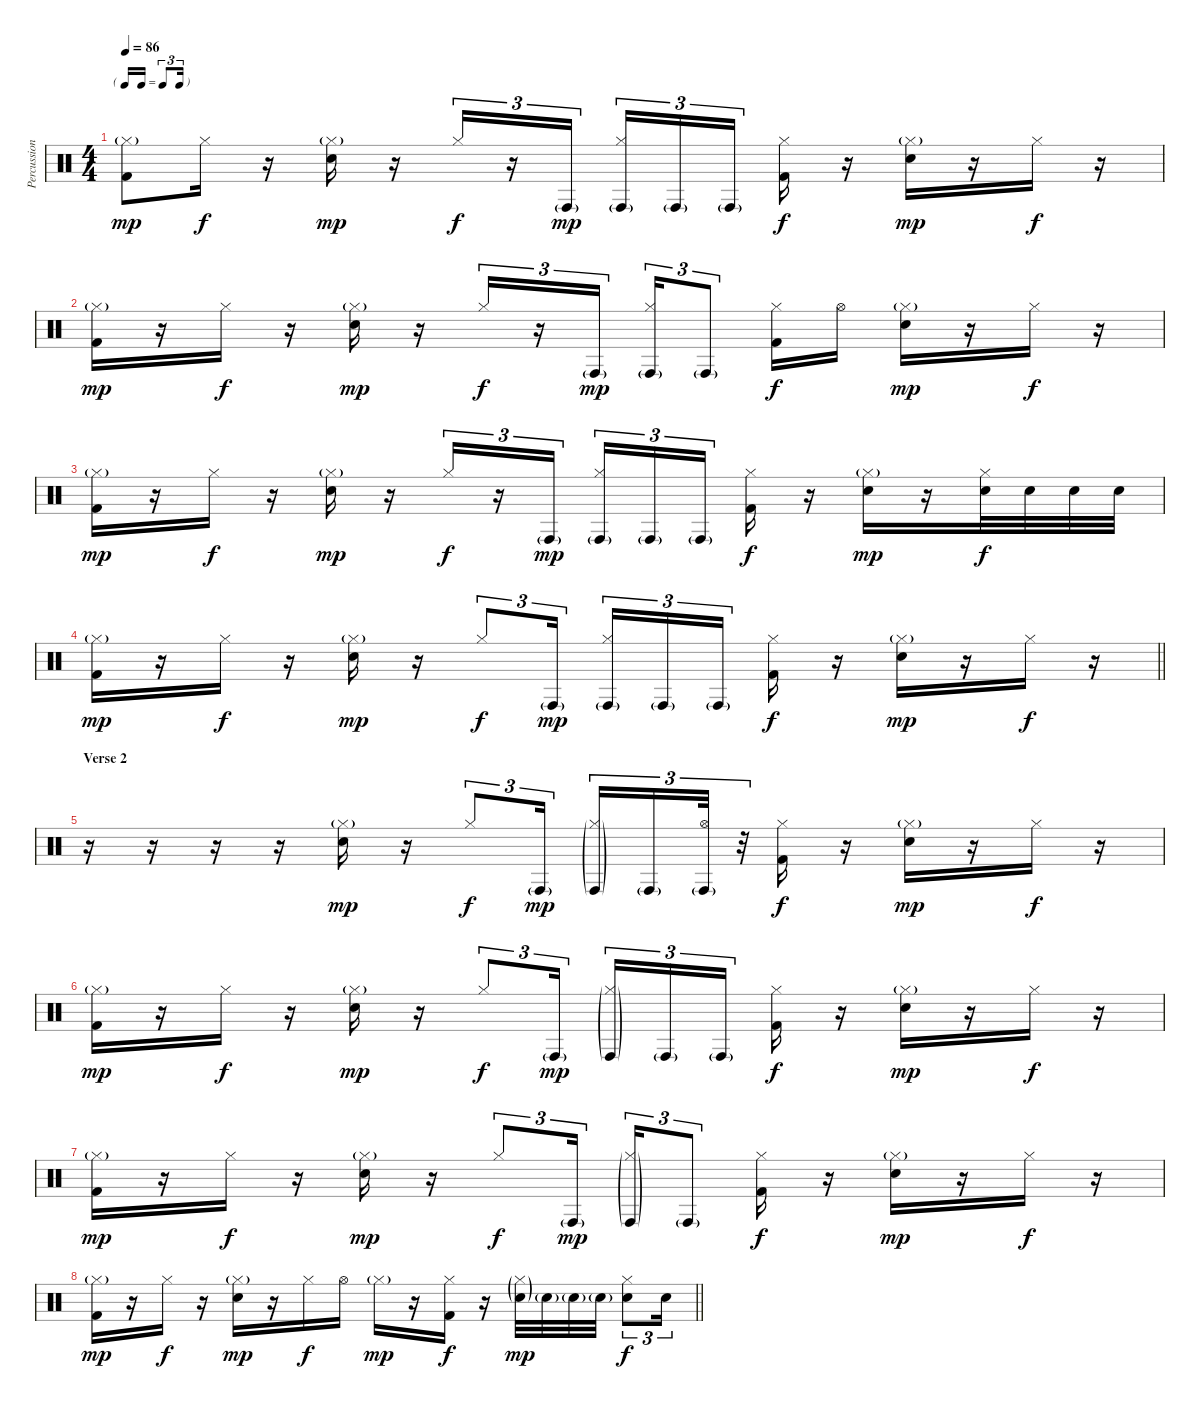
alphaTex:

\track ("Percussion" "Percussion") {instrument percussion}
\staff {score}
\articulation defaults
\ts (4 4)
\tf triplet16th
\tempo 86
\clef neutral
\ks c
("Hi-Hat (closed)"{g} "Kick (hit) 2").8{dy mp} "Hi-Hat (closed)".16{dy f} r.16 ("Hi-Hat (closed)"{g} "Electric Snare (hit)").16{dy mp} r.16 "Hi-Hat (closed)".16{tu (3 2) dy f} r.16{tu (3 2)} "Conga high (hit)"{g}.16{tu (3 2) dy mp} ("Conga high (hit)"{g} "Hi-Hat (closed)").16{tu (3 2)} "Conga high (hit)"{g}.16{tu (3 2)} "Conga high (hit)"{g}.16{tu (3 2) beam splitsecondary} ("Hi-Hat (closed)" "Kick (hit) 2").16{dy f} r.16 ("Hi-Hat (closed)"{g} "Electric Snare (hit)").16{dy mp} r.16 "Hi-Hat (closed)".16{dy f} r.16 |
("Hi-Hat (closed)"{g} "Kick (hit) 2").16{dy mp} r.16 "Hi-Hat (closed)".16{dy f} r.16 ("Hi-Hat (closed)"{g} "Electric Snare (hit)").16{dy mp} r.16 "Hi-Hat (closed)".16{tu (3 2) dy f} r.16{tu (3 2)} "Conga high (hit)"{g}.16{tu (3 2) dy mp} ("Conga high (hit)"{g} "Hi-Hat (closed)").16{tu (3 2)} "Conga high (hit)"{g}.8{tu (3 2)} ("Hi-Hat (closed)" "Kick (hit) 2").16{dy f} "Hi-Hat (open)".16 ("Hi-Hat (closed)"{g} "Electric Snare (hit)").16{dy mp} r.16 "Hi-Hat (closed)".16{dy f} r.16 |
("Hi-Hat (closed)"{g} "Kick (hit) 2").16{dy mp} r.16 "Hi-Hat (closed)".16{dy f} r.16 ("Hi-Hat (closed)"{g} "Electric Snare (hit)").16{dy mp} r.16 "Hi-Hat (closed)".16{tu (3 2) dy f} r.16{tu (3 2)} "Conga high (hit)"{g}.16{tu (3 2) dy mp} ("Conga high (hit)"{g} "Hi-Hat (closed)").16{tu (3 2)} "Conga high (hit)"{g}.16{tu (3 2)} "Conga high (hit)"{g}.16{tu (3 2) beam splitsecondary} ("Hi-Hat (closed)" "Kick (hit) 2").16{dy f} r.16 ("Hi-Hat (closed)"{g} "Electric Snare (hit)").16{dy mp} r.16 ("Hi-Hat (closed)" "Electric Snare (hit)").32{dy f} "Electric Snare (hit)".32 "Electric Snare (hit)".32 "Electric Snare (hit)".32 |
\barLineRight lightlight
("Hi-Hat (closed)"{g} "Kick (hit) 2").16{dy mp} r.16 "Hi-Hat (closed)".16{dy f} r.16 ("Hi-Hat (closed)"{g} "Electric Snare (hit)").16{dy mp} r.16 "Hi-Hat (closed)".8{tu (3 2) dy f} "Conga high (hit)"{g}.16{tu (3 2) dy mp} ("Conga high (hit)"{g} "Hi-Hat (closed)").16{tu (3 2)} "Conga high (hit)"{g}.16{tu (3 2)} "Conga high (hit)"{g}.16{tu (3 2) beam splitsecondary} ("Hi-Hat (closed)" "Kick (hit) 2").16{dy f} r.16 ("Hi-Hat (closed)"{g} "Electric Snare (hit)").16{dy mp} r.16 "Hi-Hat (closed)".16{dy f} r.16 |
\section ("" "Verse 2")
r.16 r.16 r.16 r.16 ("Hi-Hat (closed)"{g} "Electric Snare (hit)").16{dy mp} r.16 "Hi-Hat (closed)".8{tu (3 2) dy f} "Conga high (hit)"{g}.16{tu (3 2) dy mp} ("Conga high (hit)"{g} "Hi-Hat (closed)"{g}).16{tu (3 2)} "Conga high (hit)"{g}.16{tu (3 2)} ("Conga high (hit)"{g} "Hi-Hat (open)").32{tu (3 2)} r.32{tu (3 2)} ("Hi-Hat (closed)" "Kick (hit) 2").16{dy f} r.16 ("Hi-Hat (closed)"{g} "Electric Snare (hit)").16{dy mp} r.16 "Hi-Hat (closed)".16{dy f} r.16 |
("Hi-Hat (closed)"{g} "Kick (hit) 2").16{dy mp} r.16 "Hi-Hat (closed)".16{dy f} r.16 ("Hi-Hat (closed)"{g} "Electric Snare (hit)").16{dy mp} r.16 "Hi-Hat (closed)".8{tu (3 2) dy f} "Conga high (hit)"{g}.16{tu (3 2) dy mp} ("Conga high (hit)"{g} "Hi-Hat (closed)"{g}).16{tu (3 2)} "Conga high (hit)"{g}.16{tu (3 2)} "Conga high (hit)"{g}.16{tu (3 2) beam splitsecondary} ("Hi-Hat (closed)" "Kick (hit) 2").16{dy f} r.16 ("Hi-Hat (closed)"{g} "Electric Snare (hit)").16{dy mp} r.16 "Hi-Hat (closed)".16{dy f} r.16 |
("Hi-Hat (closed)"{g} "Kick (hit) 2").16{dy mp} r.16 "Hi-Hat (closed)".16{dy f} r.16 ("Hi-Hat (closed)"{g} "Electric Snare (hit)").16{dy mp} r.16 "Hi-Hat (closed)".8{tu (3 2) dy f} "Conga high (hit)"{g}.16{tu (3 2) dy mp} ("Conga high (hit)"{g} "Hi-Hat (closed)"{g}).16{tu (3 2)} "Conga high (hit)"{g}.8{tu (3 2)} ("Hi-Hat (closed)" "Kick (hit) 2").16{dy f} r.16 ("Hi-Hat (closed)"{g} "Electric Snare (hit)").16{dy mp} r.16 "Hi-Hat (closed)".16{dy f} r.16 |
\barLineRight lightlight
("Hi-Hat (closed)"{g} "Kick (hit) 2").16{dy mp} r.16 "Hi-Hat (closed)".16{dy f} r.16 ("Hi-Hat (closed)"{g} "Electric Snare (hit)").16{dy mp} r.16 "Hi-Hat (closed)".16{dy f} "Hi-Hat (open)".16 "Hi-Hat (closed)"{g}.16{dy mp} r.16 ("Hi-Hat (closed)" "Kick (hit) 2").16{dy f} r.16 ("Hi-Hat (closed)"{g} "Electric Snare (hit)"{g}).32{dy mp} "Electric Snare (hit)"{g}.32 "Electric Snare (hit)"{g}.32 "Electric Snare (hit)"{g}.32 ("Hi-Hat (closed)" "Electric Snare (hit)").8{tu (3 2) dy f} "Electric Snare (hit)".16{tu (3 2)}
